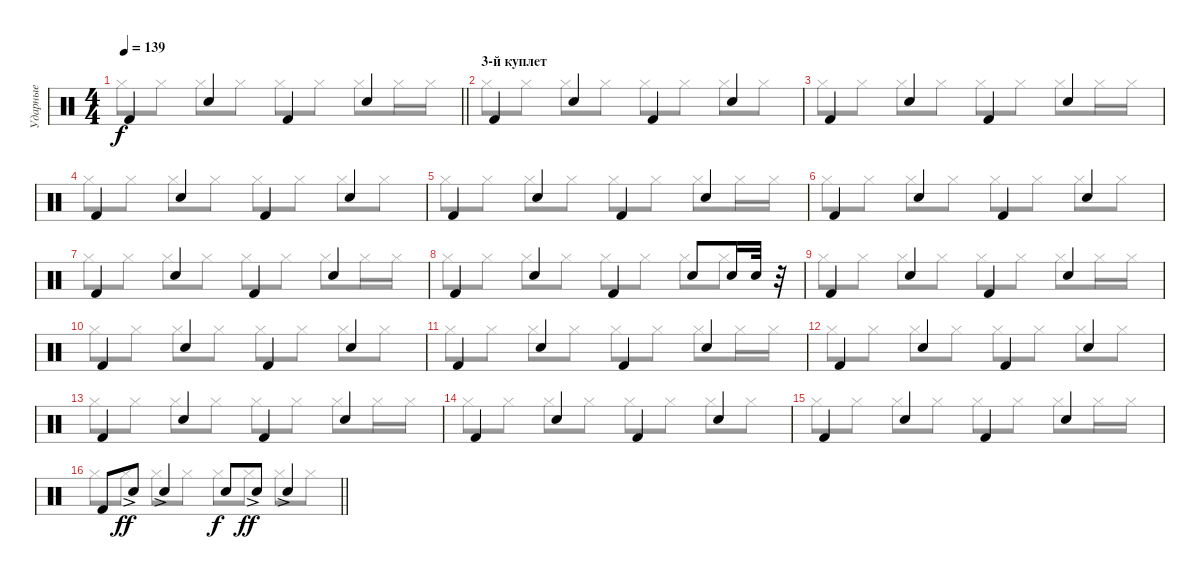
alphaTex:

\track ("Ударные" "Ударные") {instrument percussion}
\staff {score}
\articulation defaults
\voice
\ts (4 4)
\tempo 139
\clef neutral
\barLineRight lightlight
\ks c "Kick (hit) 2".4{dy f} "Snare (hit) 2".4 "Kick (hit) 2".4 "Snare (hit) 2".4
|
\section ("" "3-й куплет")
"Kick (hit) 2".4 "Snare (hit) 2".4 "Kick (hit) 2".4 "Snare (hit) 2".4 |
"Kick (hit) 2".4 "Snare (hit) 2".4 "Kick (hit) 2".4 "Snare (hit) 2".4 |
"Kick (hit) 2".4 "Snare (hit) 2".4 "Kick (hit) 2".4 "Snare (hit) 2".4 |
"Kick (hit) 2".4 "Snare (hit) 2".4 "Kick (hit) 2".4 "Snare (hit) 2".4 |
"Kick (hit) 2".4 "Snare (hit) 2".4 "Kick (hit) 2".4 "Snare (hit) 2".4 |
"Kick (hit) 2".4 "Snare (hit) 2".4 "Kick (hit) 2".4 "Snare (hit) 2".4 |
"Kick (hit) 2".4 "Snare (hit) 2".4 "Kick (hit) 2".4 "Snare (hit) 2".8 "Snare (hit) 2".16 "Snare (hit) 2".32 r.32 |
"Kick (hit) 2".4 "Snare (hit) 2".4 "Kick (hit) 2".4 "Snare (hit) 2".4 |
"Kick (hit) 2".4 "Snare (hit) 2".4 "Kick (hit) 2".4 "Snare (hit) 2".4 |
"Kick (hit) 2".4 "Snare (hit) 2".4 "Kick (hit) 2".4 "Snare (hit) 2".4 |
"Kick (hit) 2".4 "Snare (hit) 2".4 "Kick (hit) 2".4 "Snare (hit) 2".4 |
"Kick (hit) 2".4 "Snare (hit) 2".4 "Kick (hit) 2".4 "Snare (hit) 2".4 |
"Kick (hit) 2".4 "Snare (hit) 2".4 "Kick (hit) 2".4 "Snare (hit) 2".4 |
"Kick (hit) 2".4 "Snare (hit) 2".4 "Kick (hit) 2".4 "Snare (hit) 2".4 |
\barLineRight lightlight "Kick (hit) 2".8 "Snare (hit) 2"{ac}.8{dy ff} "Snare (hit) 2"{ac}.4 "Snare (hit) 2".8{dy f} "Snare (hit) 2"{ac}.8{dy ff} "Snare (hit) 2"{ac}.4
\voice
\clef neutral
\ottava regular
\simile none
\barLineRight lightlight
\ks c "Hi-Hat (closed)".8{dy f} "Hi-Hat (closed)".8 "Hi-Hat (closed)".8 "Hi-Hat (closed)".8 "Hi-Hat (closed)".8 "Hi-Hat (closed)".8 "Hi-Hat (closed)".8 "Hi-Hat (closed)".16 "Hi-Hat (closed)".16
|
"Hi-Hat (closed)".8 "Hi-Hat (closed)".8 "Hi-Hat (closed)".8 "Hi-Hat (closed)".8 "Hi-Hat (closed)".8 "Hi-Hat (closed)".8 "Hi-Hat (closed)".8 "Hi-Hat (closed)".8 |
"Hi-Hat (closed)".8 "Hi-Hat (closed)".8 "Hi-Hat (closed)".8 "Hi-Hat (closed)".8 "Hi-Hat (closed)".8 "Hi-Hat (closed)".8 "Hi-Hat (closed)".8 "Hi-Hat (closed)".16 "Hi-Hat (closed)".16 |
"Hi-Hat (closed)".8 "Hi-Hat (closed)".8 "Hi-Hat (closed)".8 "Hi-Hat (closed)".8 "Hi-Hat (closed)".8 "Hi-Hat (closed)".8 "Hi-Hat (closed)".8 "Hi-Hat (closed)".8 |
"Hi-Hat (closed)".8 "Hi-Hat (closed)".8 "Hi-Hat (closed)".8 "Hi-Hat (closed)".8 "Hi-Hat (closed)".8 "Hi-Hat (closed)".8 "Hi-Hat (closed)".8 "Hi-Hat (closed)".16 "Hi-Hat (closed)".16 |
"Hi-Hat (closed)".8 "Hi-Hat (closed)".8 "Hi-Hat (closed)".8 "Hi-Hat (closed)".8 "Hi-Hat (closed)".8 "Hi-Hat (closed)".8 "Hi-Hat (closed)".8 "Hi-Hat (closed)".8 |
"Hi-Hat (closed)".8 "Hi-Hat (closed)".8 "Hi-Hat (closed)".8 "Hi-Hat (closed)".8 "Hi-Hat (closed)".8 "Hi-Hat (closed)".8 "Hi-Hat (closed)".8 "Hi-Hat (closed)".16 "Hi-Hat (closed)".16 |
"Hi-Hat (closed)".8 "Hi-Hat (closed)".8 "Hi-Hat (closed)".8 "Hi-Hat (closed)".8 "Hi-Hat (closed)".8 "Hi-Hat (closed)".8 "Hi-Hat (closed)".8 "Hi-Hat (closed)".8 |
"Hi-Hat (closed)".8 "Hi-Hat (closed)".8 "Hi-Hat (closed)".8 "Hi-Hat (closed)".8 "Hi-Hat (closed)".8 "Hi-Hat (closed)".8 "Hi-Hat (closed)".8 "Hi-Hat (closed)".16 "Hi-Hat (closed)".16 |
"Hi-Hat (closed)".8 "Hi-Hat (closed)".8 "Hi-Hat (closed)".8 "Hi-Hat (closed)".8 "Hi-Hat (closed)".8 "Hi-Hat (closed)".8 "Hi-Hat (closed)".8 "Hi-Hat (closed)".8 |
"Hi-Hat (closed)".8 "Hi-Hat (closed)".8 "Hi-Hat (closed)".8 "Hi-Hat (closed)".8 "Hi-Hat (closed)".8 "Hi-Hat (closed)".8 "Hi-Hat (closed)".8 "Hi-Hat (closed)".16 "Hi-Hat (closed)".16 |
"Hi-Hat (closed)".8 "Hi-Hat (closed)".8 "Hi-Hat (closed)".8 "Hi-Hat (closed)".8 "Hi-Hat (closed)".8 "Hi-Hat (closed)".8 "Hi-Hat (closed)".8 "Hi-Hat (closed)".8 |
"Hi-Hat (closed)".8 "Hi-Hat (closed)".8 "Hi-Hat (closed)".8 "Hi-Hat (closed)".8 "Hi-Hat (closed)".8 "Hi-Hat (closed)".8 "Hi-Hat (closed)".8 "Hi-Hat (closed)".16 "Hi-Hat (closed)".16 |
"Hi-Hat (closed)".8 "Hi-Hat (closed)".8 "Hi-Hat (closed)".8 "Hi-Hat (closed)".8 "Hi-Hat (closed)".8 "Hi-Hat (closed)".8 "Hi-Hat (closed)".8 "Hi-Hat (closed)".8 |
"Hi-Hat (closed)".8 "Hi-Hat (closed)".8 "Hi-Hat (closed)".8 "Hi-Hat (closed)".8 "Hi-Hat (closed)".8 "Hi-Hat (closed)".8 "Hi-Hat (closed)".8 "Hi-Hat (closed)".16 "Hi-Hat (closed)".16 |
\barLineRight lightlight "Hi-Hat (closed)".8 "Hi-Hat (closed)".8 "Hi-Hat (closed)".8 "Hi-Hat (closed)".8 "Hi-Hat (closed)".8 "Hi-Hat (closed)".8 "Hi-Hat (closed)".8 "Hi-Hat (closed)".8
